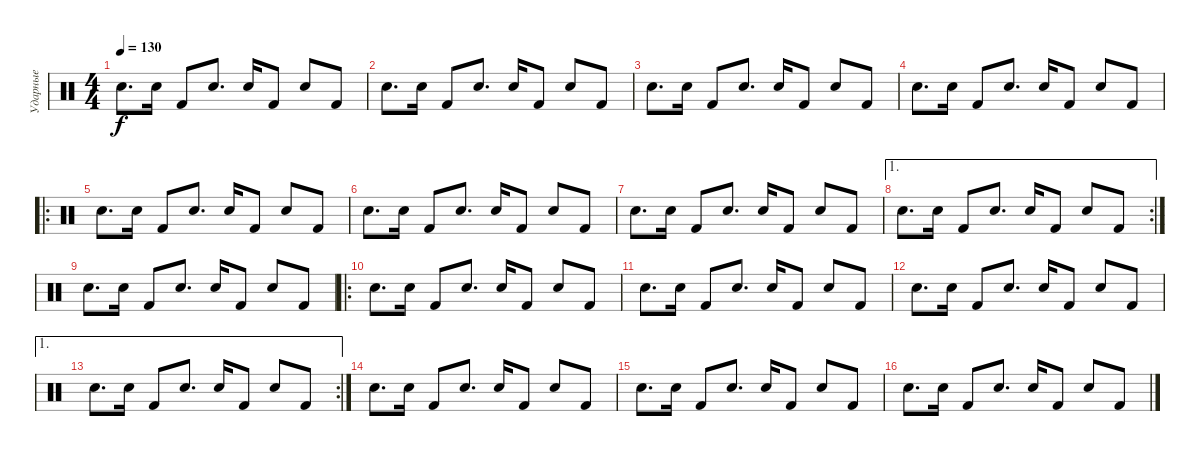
\track ("Ударные" "Ударные") {instrument percussion}
\staff {score}
\articulation defaults
\ts (4 4)
\tempo 130
\clef neutral
\ks c "Snare (hit) 2".8{d dy f} "Hand Clap (hit)".16 "Kick (hit) 2".8 "Snare (hit) 2".8{d} "Hand Clap (hit)".16 "Kick (hit) 2".8 "Snare (hit) 2".8 "Kick (hit) 2".8
|
"Snare (hit) 2".8{d} "Hand Clap (hit)".16 "Kick (hit) 2".8 "Snare (hit) 2".8{d} "Hand Clap (hit)".16 "Kick (hit) 2".8 "Snare (hit) 2".8 "Kick (hit) 2".8 |
"Snare (hit) 2".8{d} "Hand Clap (hit)".16 "Kick (hit) 2".8 "Snare (hit) 2".8{d} "Hand Clap (hit)".16 "Kick (hit) 2".8 "Snare (hit) 2".8 "Kick (hit) 2".8 |
"Snare (hit) 2".8{d} "Hand Clap (hit)".16 "Kick (hit) 2".8 "Snare (hit) 2".8{d} "Hand Clap (hit)".16 "Kick (hit) 2".8 "Snare (hit) 2".8 "Kick (hit) 2".8 |
\ro "Snare (hit) 2".8{d} "Hand Clap (hit)".16 "Kick (hit) 2".8 "Snare (hit) 2".8{d} "Hand Clap (hit)".16 "Kick (hit) 2".8 "Snare (hit) 2".8 "Kick (hit) 2".8
|
"Snare (hit) 2".8{d} "Hand Clap (hit)".16 "Kick (hit) 2".8 "Snare (hit) 2".8{d} "Hand Clap (hit)".16 "Kick (hit) 2".8 "Snare (hit) 2".8 "Kick (hit) 2".8 |
"Snare (hit) 2".8{d} "Hand Clap (hit)".16 "Kick (hit) 2".8 "Snare (hit) 2".8{d} "Hand Clap (hit)".16 "Kick (hit) 2".8 "Snare (hit) 2".8 "Kick (hit) 2".8 |
\ae 1
\rc 2 "Snare (hit) 2".8{d} "Hand Clap (hit)".16 "Kick (hit) 2".8 "Snare (hit) 2".8{d} "Hand Clap (hit)".16 "Kick (hit) 2".8 "Snare (hit) 2".8 "Kick (hit) 2".8
|
"Snare (hit) 2".8{d} "Hand Clap (hit)".16 "Kick (hit) 2".8 "Snare (hit) 2".8{d} "Hand Clap (hit)".16 "Kick (hit) 2".8 "Snare (hit) 2".8 "Kick (hit) 2".8 |
\ro "Snare (hit) 2".8{d} "Hand Clap (hit)".16 "Kick (hit) 2".8 "Snare (hit) 2".8{d} "Hand Clap (hit)".16 "Kick (hit) 2".8 "Snare (hit) 2".8 "Kick (hit) 2".8
|
"Snare (hit) 2".8{d} "Hand Clap (hit)".16 "Kick (hit) 2".8 "Snare (hit) 2".8{d} "Hand Clap (hit)".16 "Kick (hit) 2".8 "Snare (hit) 2".8 "Kick (hit) 2".8 |
"Snare (hit) 2".8{d} "Hand Clap (hit)".16 "Kick (hit) 2".8 "Snare (hit) 2".8{d} "Hand Clap (hit)".16 "Kick (hit) 2".8 "Snare (hit) 2".8 "Kick (hit) 2".8 |
\ae 1
\rc 2 "Snare (hit) 2".8{d} "Hand Clap (hit)".16 "Kick (hit) 2".8 "Snare (hit) 2".8{d} "Hand Clap (hit)".16 "Kick (hit) 2".8 "Snare (hit) 2".8 "Kick (hit) 2".8
|
"Snare (hit) 2".8{d} "Hand Clap (hit)".16 "Kick (hit) 2".8 "Snare (hit) 2".8{d} "Hand Clap (hit)".16 "Kick (hit) 2".8 "Snare (hit) 2".8 "Kick (hit) 2".8 |
"Snare (hit) 2".8{d} "Hand Clap (hit)".16 "Kick (hit) 2".8 "Snare (hit) 2".8{d} "Hand Clap (hit)".16 "Kick (hit) 2".8 "Snare (hit) 2".8 "Kick (hit) 2".8 |
"Snare (hit) 2".8{d} "Hand Clap (hit)".16 "Kick (hit) 2".8 "Snare (hit) 2".8{d} "Hand Clap (hit)".16 "Kick (hit) 2".8 "Snare (hit) 2".8 "Kick (hit) 2".8
